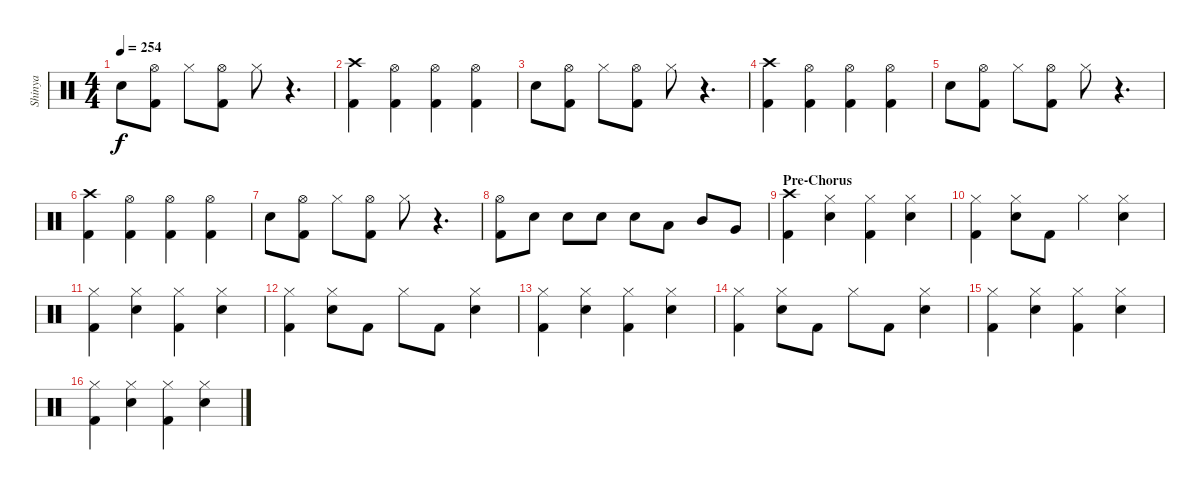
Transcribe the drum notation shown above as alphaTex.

\track ("Shinya" "Shinya") {instrument percussion}
\staff {score}
\articulation defaults
\ts (4 4)
\tempo 254
\clef neutral
\ks c "Electric Snare (hit)".8{dy f}
("Hi-Hat (open)" "Kick (hit) 2").8 "Hi-Hat (closed)".8 ("Hi-Hat (open)" "Kick (hit) 2").8 "Hi-Hat (closed)".8 r.4{d} |
("Kick (hit) 2" "Crash high (hit)").4 ("Hi-Hat (open)" "Kick (hit) 2").4 ("Hi-Hat (open)" "Kick (hit) 2").4 ("Hi-Hat (open)" "Kick (hit) 2").4 |
"Electric Snare (hit)".8 ("Hi-Hat (open)" "Kick (hit) 2").8 "Hi-Hat (closed)".8 ("Hi-Hat (open)" "Kick (hit) 2").8 "Hi-Hat (closed)".8 r.4{d} |
("Kick (hit) 2" "Crash high (hit)").4 ("Hi-Hat (open)" "Kick (hit) 2").4 ("Hi-Hat (open)" "Kick (hit) 2").4 ("Hi-Hat (open)" "Kick (hit) 2").4 |
"Electric Snare (hit)".8 ("Hi-Hat (open)" "Kick (hit) 2").8 "Hi-Hat (closed)".8 ("Hi-Hat (open)" "Kick (hit) 2").8 "Hi-Hat (closed)".8 r.4{d} |
("Kick (hit) 2" "Crash high (hit)").4 ("Hi-Hat (open)" "Kick (hit) 2").4 ("Hi-Hat (open)" "Kick (hit) 2").4 ("Hi-Hat (open)" "Kick (hit) 2").4 |
"Electric Snare (hit)".8 ("Hi-Hat (open)" "Kick (hit) 2").8 "Hi-Hat (closed)".8 ("Hi-Hat (open)" "Kick (hit) 2").8 "Hi-Hat (closed)".8 r.4{d} |
("Hi-Hat (open)" "Kick (hit) 2").8 "Electric Snare (hit)".8 "Electric Snare (hit)".8 "Electric Snare (hit)".8 "Electric Snare (hit)".8 "Low Tom (hit)".8 "Mid Tom (hit)".8 "Very Low Tom (hit)".8 |
\section ("" "Pre-Chorus")
("Kick (hit) 2" "Crash high (hit)").4 ("Electric Snare (hit)" "Hi-Hat (closed)").4 ("Hi-Hat (closed)" "Kick (hit) 2").4 ("Electric Snare (hit)" "Hi-Hat (closed)").4 |
("Hi-Hat (closed)" "Kick (hit) 2").4 ("Hi-Hat (closed)" "Electric Snare (hit)").8 "Kick (hit) 2".8 "Hi-Hat (closed)".4 ("Electric Snare (hit)" "Hi-Hat (closed)").4 |
("Hi-Hat (closed)" "Kick (hit) 2").4 ("Electric Snare (hit)" "Hi-Hat (closed)").4 ("Hi-Hat (closed)" "Kick (hit) 2").4 ("Electric Snare (hit)" "Hi-Hat (closed)").4 |
("Hi-Hat (closed)" "Kick (hit) 2").4 ("Electric Snare (hit)" "Hi-Hat (closed)").8 "Kick (hit) 2".8 "Hi-Hat (closed)".8 "Kick (hit) 2".8 ("Electric Snare (hit)" "Hi-Hat (closed)").4 |
("Hi-Hat (closed)" "Kick (hit) 2").4 ("Electric Snare (hit)" "Hi-Hat (closed)").4 ("Hi-Hat (closed)" "Kick (hit) 2").4 ("Electric Snare (hit)" "Hi-Hat (closed)").4 |
("Hi-Hat (closed)" "Kick (hit) 2").4 ("Electric Snare (hit)" "Hi-Hat (closed)").8 "Kick (hit) 2".8 "Hi-Hat (closed)".8 "Kick (hit) 2".8 ("Electric Snare (hit)" "Hi-Hat (closed)").4 |
("Hi-Hat (closed)" "Kick (hit) 2").4 ("Electric Snare (hit)" "Hi-Hat (closed)").4 ("Hi-Hat (closed)" "Kick (hit) 2").4 ("Electric Snare (hit)" "Hi-Hat (closed)").4 |
("Hi-Hat (closed)" "Kick (hit) 2").4 ("Electric Snare (hit)" "Hi-Hat (closed)").4 ("Hi-Hat (closed)" "Kick (hit) 2").4 ("Electric Snare (hit)" "Hi-Hat (closed)").4
